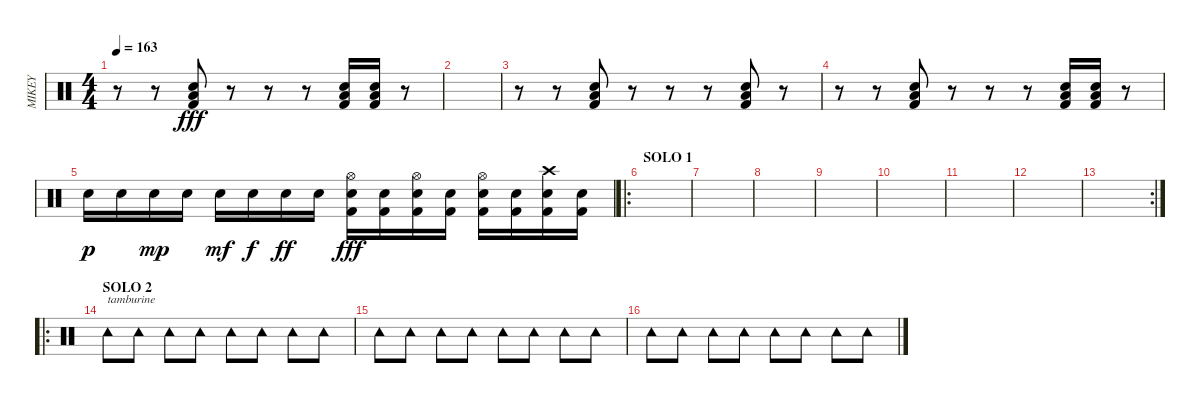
\track ("MIKEY" "MIKEY") {instrument percussion}
\staff {score}
\articulation defaults
\ts (4 4)
\tempo 163
\clef neutral
\ks c
r.8{dy fff} r.8 ("Kick (hit) 2" "Low Floor Tom (hit)" "Electric Snare (hit)").8 r.8 r.8 r.8 ("Kick (hit) 2" "Low Floor Tom (hit)" "Electric Snare (hit)").16 ("Kick (hit) 2" "Low Floor Tom (hit)" "Electric Snare (hit)").16 r.8 |
|
r.8 r.8 ("Kick (hit) 2" "Low Floor Tom (hit)" "Electric Snare (hit)").8 r.8 r.8 r.8 ("Kick (hit) 2" "Low Floor Tom (hit)" "Electric Snare (hit)").8 r.8 |
r.8 r.8 ("Kick (hit) 2" "Low Floor Tom (hit)" "Electric Snare (hit)").8 r.8 r.8 r.8 ("Kick (hit) 2" "Low Floor Tom (hit)" "Electric Snare (hit)").16 ("Kick (hit) 2" "Low Floor Tom (hit)" "Electric Snare (hit)").16 r.8 |
"Electric Snare (hit)".16{dy p} "Electric Snare (hit)".16 "Electric Snare (hit)".16{dy mp} "Electric Snare (hit)".16 "Electric Snare (hit)".16{dy mf} "Electric Snare (hit)".16{dy f} "Electric Snare (hit)".16{dy ff} "Electric Snare (hit)".16 ("Hi-Hat (open)" "Kick (hit) 2" "Electric Snare (hit)").16{dy fff} ("Kick (hit) 2" "Electric Snare (hit)").16 ("Hi-Hat (open)" "Kick (hit) 2" "Electric Snare (hit)").16 ("Kick (hit) 2" "Electric Snare (hit)").16 ("Hi-Hat (open)" "Kick (hit) 2" "Electric Snare (hit)").16 ("Kick (hit) 2" "Electric Snare (hit)").16 ("Crash high (hit)" "Kick (hit) 2" "Electric Snare (hit)").16 ("Kick (hit) 2" "Electric Snare (hit)").16 |
\ro
\section ("" "SOLO 1")
|
|
|
|
|
|
|
\rc 2
|
\ro
\section ("" "SOLO 2")
"Tambourine (hit)".8{txt "tamburine"} "Tambourine (hit)".8 "Tambourine (hit)".8 "Tambourine (hit)".8 "Tambourine (hit)".8 "Tambourine (hit)".8 "Tambourine (hit)".8 "Tambourine (hit)".8 |
"Tambourine (hit)".8 "Tambourine (hit)".8 "Tambourine (hit)".8 "Tambourine (hit)".8 "Tambourine (hit)".8 "Tambourine (hit)".8 "Tambourine (hit)".8 "Tambourine (hit)".8 |
"Tambourine (hit)".8 "Tambourine (hit)".8 "Tambourine (hit)".8 "Tambourine (hit)".8 "Tambourine (hit)".8 "Tambourine (hit)".8 "Tambourine (hit)".8 "Tambourine (hit)".8
